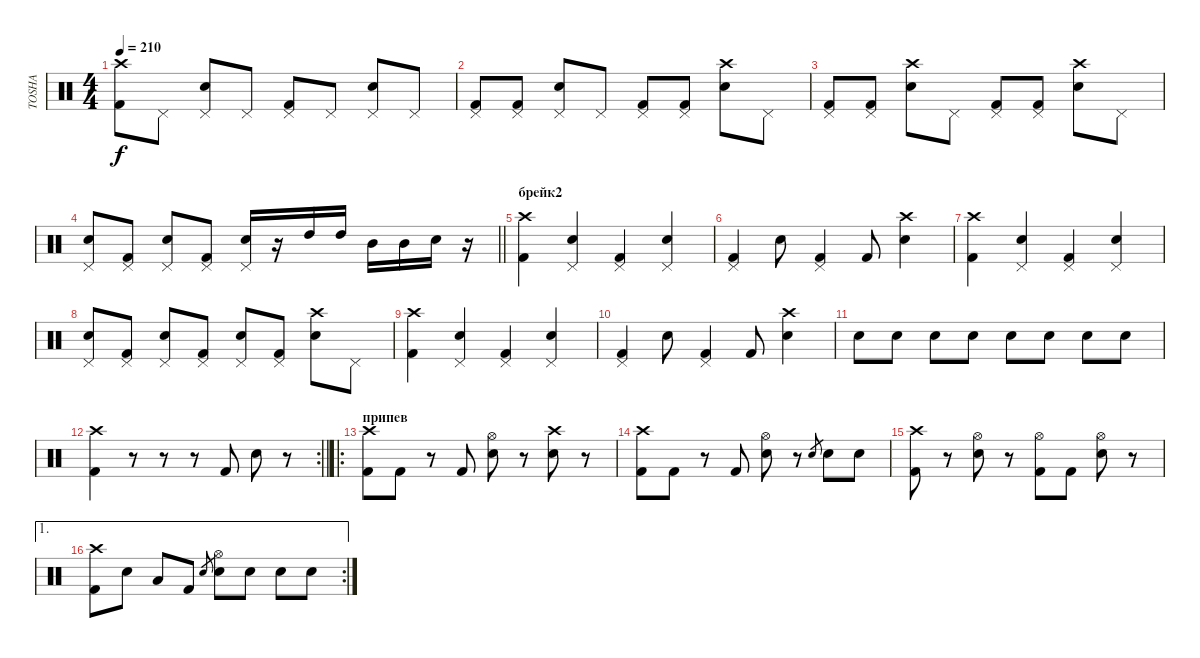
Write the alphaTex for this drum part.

\track ("TOSHA" "TOSHA") {instrument percussion}
\staff {score}
\articulation defaults
\ts (4 4)
\tempo 210
\clef neutral
\ks c
("Kick (hit) 2" "Crash high (hit)").8{dy f} "Pedal Hi-Hat (hit)".8 ("Electric Snare (hit)" "Pedal Hi-Hat (hit)").8 "Pedal Hi-Hat (hit)".8 ("Kick (hit) 2" "Pedal Hi-Hat (hit)").8 "Pedal Hi-Hat (hit)".8 ("Electric Snare (hit)" "Pedal Hi-Hat (hit)").8 "Pedal Hi-Hat (hit)".8 |
("Kick (hit) 2" "Pedal Hi-Hat (hit)").8 ("Kick (hit) 2" "Pedal Hi-Hat (hit)").8 ("Electric Snare (hit)" "Pedal Hi-Hat (hit)").8 "Pedal Hi-Hat (hit)".8 ("Kick (hit) 2" "Pedal Hi-Hat (hit)").8 ("Kick (hit) 2" "Pedal Hi-Hat (hit)").8 ("Electric Snare (hit)" "Crash high (hit)").8 "Pedal Hi-Hat (hit)".8 |
("Kick (hit) 2" "Pedal Hi-Hat (hit)").8 ("Kick (hit) 2" "Pedal Hi-Hat (hit)").8 ("Electric Snare (hit)" "Crash high (hit)").8 "Pedal Hi-Hat (hit)".8 ("Kick (hit) 2" "Pedal Hi-Hat (hit)").8 ("Kick (hit) 2" "Pedal Hi-Hat (hit)").8 ("Electric Snare (hit)" "Crash high (hit)").8 "Pedal Hi-Hat (hit)".8 |
\barLineRight lightlight
("Electric Snare (hit)" "Pedal Hi-Hat (hit)").8 ("Kick (hit) 2" "Pedal Hi-Hat (hit)").8 ("Electric Snare (hit)" "Pedal Hi-Hat (hit)").8 ("Kick (hit) 2" "Pedal Hi-Hat (hit)").8 ("Electric Snare (hit)" "Pedal Hi-Hat (hit)").16 r.16 "High Tom (hit)".16 "High Tom (hit)".16 "Mid Tom (hit)".16 "Mid Tom (hit)".16 "Electric Snare (hit)".16 r.16 |
\section ("" "брейк2")
("Kick (hit) 2" "Crash high (hit)").4 ("Electric Snare (hit)" "Pedal Hi-Hat (hit)").4 ("Kick (hit) 2" "Pedal Hi-Hat (hit)").4 ("Electric Snare (hit)" "Pedal Hi-Hat (hit)").4 |
("Kick (hit) 2" "Pedal Hi-Hat (hit)").4 "Electric Snare (hit)".8 ("Kick (hit) 2" "Pedal Hi-Hat (hit)").4 "Kick (hit) 2".8 ("Electric Snare (hit)" "Crash high (hit)").4 |
("Kick (hit) 2" "Crash high (hit)").4 ("Electric Snare (hit)" "Pedal Hi-Hat (hit)").4 ("Kick (hit) 2" "Pedal Hi-Hat (hit)").4 ("Electric Snare (hit)" "Pedal Hi-Hat (hit)").4 |
("Electric Snare (hit)" "Pedal Hi-Hat (hit)").8 ("Kick (hit) 2" "Pedal Hi-Hat (hit)").8 ("Electric Snare (hit)" "Pedal Hi-Hat (hit)").8 ("Kick (hit) 2" "Pedal Hi-Hat (hit)").8 ("Electric Snare (hit)" "Pedal Hi-Hat (hit)").8 ("Kick (hit) 2" "Pedal Hi-Hat (hit)").8 ("Electric Snare (hit)" "Crash high (hit)").8 "Pedal Hi-Hat (hit)".8 |
("Kick (hit) 2" "Crash high (hit)").4 ("Electric Snare (hit)" "Pedal Hi-Hat (hit)").4 ("Kick (hit) 2" "Pedal Hi-Hat (hit)").4 ("Electric Snare (hit)" "Pedal Hi-Hat (hit)").4 |
("Kick (hit) 2" "Pedal Hi-Hat (hit)").4 "Electric Snare (hit)".8 ("Kick (hit) 2" "Pedal Hi-Hat (hit)").4 "Kick (hit) 2".8 ("Electric Snare (hit)" "Crash high (hit)").4 |
"Electric Snare (hit)".8 "Electric Snare (hit)".8 "Electric Snare (hit)".8 "Electric Snare (hit)".8 "Electric Snare (hit)".8 "Electric Snare (hit)".8 "Electric Snare (hit)".8 "Electric Snare (hit)".8 |
\rc 2
\barLineRight lightlight
("Kick (hit) 2" "Crash high (hit)").4 r.8 r.8 r.8 "Kick (hit) 2".8 "Electric Snare (hit)".8 r.8 |
\ro
\section ("" "припев")
("Kick (hit) 2" "Crash high (hit)").8 "Kick (hit) 2".8 r.8 "Kick (hit) 2".8 ("Electric Snare (hit)" "Hi-Hat (open)").8 r.8 ("Electric Snare (hit)" "Crash high (hit)").8 r.8 |
("Kick (hit) 2" "Crash high (hit)").8 "Kick (hit) 2".8 r.8 "Kick (hit) 2".8 ("Electric Snare (hit)" "Hi-Hat (open)").8 r.8 "Electric Snare (hit)".8{gr} "Electric Snare (hit)".8 "Electric Snare (hit)".8 |
("Kick (hit) 2" "Crash high (hit)").8 r.8 ("Electric Snare (hit)" "Hi-Hat (open)").8 r.8 ("Kick (hit) 2" "Hi-Hat (open)").8 "Kick (hit) 2".8 ("Electric Snare (hit)" "Hi-Hat (open)").8 r.8 |
\ae 1
\rc 2
("Kick (hit) 2" "Crash high (hit)").8 "Electric Snare (hit)".8 "Low Tom (hit)".8 "Kick (hit) 2".8 "Electric Snare (hit)".8{gr} ("Electric Snare (hit)" "Hi-Hat (open)").8 "Electric Snare (hit)".8 "Electric Snare (hit)".8 "Electric Snare (hit)".8
